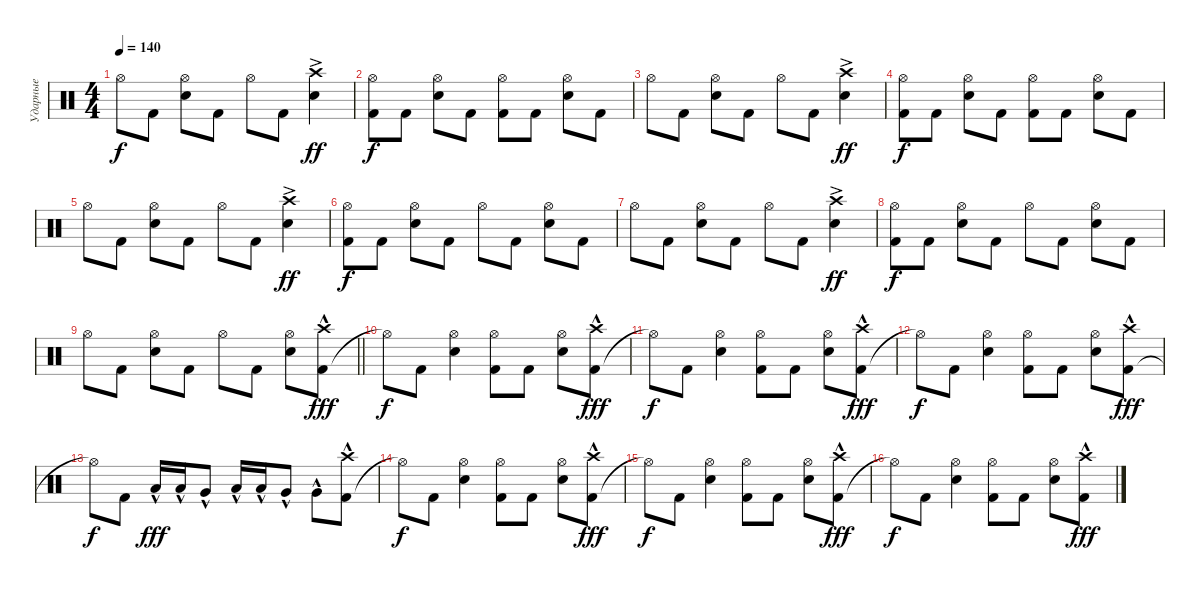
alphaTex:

\track ("Ударные" "Ударные") {instrument percussion}
\staff {score}
\articulation defaults
\ts (4 4)
\tempo 140
\clef neutral
\ks c "Hi-Hat (open)".8{dy f} "Kick (hit) 2".8
("Snare (hit) 2" "Hi-Hat (open)").8 "Kick (hit) 2".8 "Hi-Hat (open)".8 "Kick (hit) 2".8 ("Snare (hit) 2" "Crash high (hit)"{ac}).4{dy ff} |
("Kick (hit) 2" "Hi-Hat (open)").8{dy f} "Kick (hit) 2".8 ("Snare (hit) 2" "Hi-Hat (open)").8 "Kick (hit) 2".8 ("Kick (hit) 2" "Hi-Hat (open)").8 "Kick (hit) 2".8 ("Snare (hit) 2" "Hi-Hat (open)").8 "Kick (hit) 2".8 |
"Hi-Hat (open)".8 "Kick (hit) 2".8 ("Snare (hit) 2" "Hi-Hat (open)").8 "Kick (hit) 2".8 "Hi-Hat (open)".8 "Kick (hit) 2".8 ("Snare (hit) 2" "Crash high (hit)"{ac}).4{dy ff} |
("Kick (hit) 2" "Hi-Hat (open)").8{dy f} "Kick (hit) 2".8 ("Snare (hit) 2" "Hi-Hat (open)").8 "Kick (hit) 2".8 ("Kick (hit) 2" "Hi-Hat (open)").8 "Kick (hit) 2".8 ("Snare (hit) 2" "Hi-Hat (open)").8 "Kick (hit) 2".8 |
"Hi-Hat (open)".8 "Kick (hit) 2".8 ("Snare (hit) 2" "Hi-Hat (open)").8 "Kick (hit) 2".8 "Hi-Hat (open)".8 "Kick (hit) 2".8 ("Snare (hit) 2" "Crash high (hit)"{ac}).4{dy ff} |
("Kick (hit) 2" "Hi-Hat (open)").8{dy f} "Kick (hit) 2".8 ("Snare (hit) 2" "Hi-Hat (open)").8 "Kick (hit) 2".8 "Hi-Hat (open)".8 "Kick (hit) 2".8 ("Snare (hit) 2" "Hi-Hat (open)").8 "Kick (hit) 2".8 |
"Hi-Hat (open)".8 "Kick (hit) 2".8 ("Snare (hit) 2" "Hi-Hat (open)").8 "Kick (hit) 2".8 "Hi-Hat (open)".8 "Kick (hit) 2".8 ("Snare (hit) 2" "Crash high (hit)"{ac}).4{dy ff} |
("Kick (hit) 2" "Hi-Hat (open)").8{dy f} "Kick (hit) 2".8 ("Snare (hit) 2" "Hi-Hat (open)").8 "Kick (hit) 2".8 "Hi-Hat (open)".8 "Kick (hit) 2".8 ("Snare (hit) 2" "Hi-Hat (open)").8 "Kick (hit) 2".8 |
\barLineRight lightlight "Hi-Hat (open)".8 "Kick (hit) 2".8
("Snare (hit) 2" "Hi-Hat (open)").8 "Kick (hit) 2".8 "Hi-Hat (open)".8 "Kick (hit) 2".8 ("Snare (hit) 2" "Hi-Hat (open)").8 ("Kick (hit) 2" "Crash high (hit)"{hac}).8{dy fff} |
"Hi-Hat (open)"{t}.8{dy f} "Kick (hit) 2".8 ("Snare (hit) 2" "Hi-Hat (open)").4 ("Kick (hit) 2" "Hi-Hat (open)").8 "Kick (hit) 2".8 ("Snare (hit) 2" "Hi-Hat (open)").8 ("Kick (hit) 2" "Crash high (hit)"{hac}).8{dy fff} |
"Hi-Hat (open)"{t}.8{dy f} "Kick (hit) 2".8 ("Snare (hit) 2" "Hi-Hat (open)").4 ("Kick (hit) 2" "Hi-Hat (open)").8 "Kick (hit) 2".8 ("Snare (hit) 2" "Hi-Hat (open)").8 ("Kick (hit) 2" "Crash high (hit)"{hac}).8{dy fff} |
"Hi-Hat (open)"{t}.8{dy f} "Kick (hit) 2".8 ("Snare (hit) 2" "Hi-Hat (open)").4 ("Kick (hit) 2" "Hi-Hat (open)").8 "Kick (hit) 2".8 ("Snare (hit) 2" "Hi-Hat (open)").8 ("Kick (hit) 2" "Crash high (hit)"{hac}).8{dy fff} |
"Hi-Hat (open)"{t}.8{dy f} "Kick (hit) 2".8 "Low Tom (hit)"{hac}.16{dy fff} "Low Tom (hit)"{hac}.16 "Very Low Tom (hit)"{hac}.8 "Low Tom (hit)"{hac}.16 "Low Tom (hit)"{hac}.16 "Very Low Tom (hit)"{hac}.8 "Very Low Tom (hit)"{hac}.8 ("Kick (hit) 2" "Crash high (hit)"{hac}).8 |
"Hi-Hat (open)"{t}.8{dy f} "Kick (hit) 2".8 ("Snare (hit) 2" "Hi-Hat (open)").4 ("Kick (hit) 2" "Hi-Hat (open)").8 "Kick (hit) 2".8 ("Snare (hit) 2" "Hi-Hat (open)").8 ("Kick (hit) 2" "Crash high (hit)"{hac}).8{dy fff} |
"Hi-Hat (open)"{t}.8{dy f} "Kick (hit) 2".8 ("Snare (hit) 2" "Hi-Hat (open)").4 ("Kick (hit) 2" "Hi-Hat (open)").8 "Kick (hit) 2".8 ("Snare (hit) 2" "Hi-Hat (open)").8 ("Kick (hit) 2" "Crash high (hit)"{hac}).8{dy fff} |
"Hi-Hat (open)"{t}.8{dy f} "Kick (hit) 2".8 ("Snare (hit) 2" "Hi-Hat (open)").4 ("Kick (hit) 2" "Hi-Hat (open)").8 "Kick (hit) 2".8 ("Snare (hit) 2" "Hi-Hat (open)").8 ("Kick (hit) 2" "Crash high (hit)"{hac}).8{dy fff}
